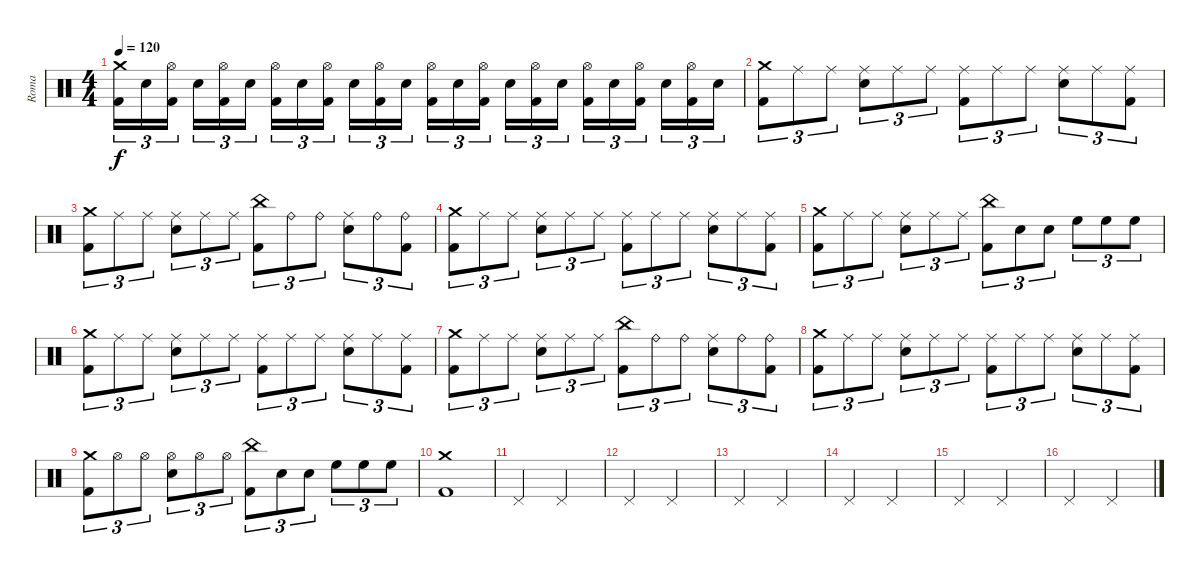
\track ("Roma" "Roma") {instrument percussion}
\staff {score}
\articulation defaults
\ts (4 4)
\tempo 120
\clef neutral
\ks c
("Crash medium (hit)" "Kick (hit) 2").16{tu (3 2) dy f} "Electric Snare (hit)".16{tu (3 2)} ("Hi-Hat (open)" "Kick (hit) 2").16{tu (3 2) beam splitsecondary} "Electric Snare (hit)".16{tu (3 2)} ("Hi-Hat (open)" "Kick (hit) 2").16{tu (3 2)} "Electric Snare (hit)".16{tu (3 2)} ("Hi-Hat (open)" "Kick (hit) 2").16{tu (3 2)} "Electric Snare (hit)".16{tu (3 2)} ("Hi-Hat (open)" "Kick (hit) 2").16{tu (3 2) beam splitsecondary} "Electric Snare (hit)".16{tu (3 2)} ("Hi-Hat (open)" "Kick (hit) 2").16{tu (3 2)} "Electric Snare (hit)".16{tu (3 2)} ("Hi-Hat (open)" "Kick (hit) 2").16{tu (3 2)} "Electric Snare (hit)".16{tu (3 2)} ("Hi-Hat (open)" "Kick (hit) 2").16{tu (3 2) beam splitsecondary} "Electric Snare (hit)".16{tu (3 2)} ("Hi-Hat (open)" "Kick (hit) 2").16{tu (3 2)} "Electric Snare (hit)".16{tu (3 2)} ("Hi-Hat (open)" "Kick (hit) 2").16{tu (3 2)} "Electric Snare (hit)".16{tu (3 2)} ("Hi-Hat (open)" "Kick (hit) 2").16{tu (3 2) beam splitsecondary} "Electric Snare (hit)".16{tu (3 2)} ("Hi-Hat (open)" "Kick (hit) 2").16{tu (3 2)} "Electric Snare (hit)".16{tu (3 2)} |
("Crash medium (hit)" "Kick (hit) 2").8{tu (3 2)} "Ride (middle)".8{tu (3 2)} "Ride (middle)".8{tu (3 2)} ("Ride (middle)" "Electric Snare (hit)").8{tu (3 2)} "Ride (middle)".8{tu (3 2)} "Ride (middle)".8{tu (3 2)} ("Ride (middle)" "Kick (hit) 2").8{tu (3 2)} "Ride (middle)".8{tu (3 2)} "Ride (middle)".8{tu (3 2)} ("Ride (middle)" "Electric Snare (hit)").8{tu (3 2)} "Ride (middle)".8{tu (3 2)} ("Ride (middle)" "Kick (hit) 2").8{tu (3 2)} |
("Crash medium (hit)" "Kick (hit) 2").8{tu (3 2)} "Ride (middle)".8{tu (3 2)} "Ride (middle)".8{tu (3 2)} ("Ride (middle)" "Electric Snare (hit)").8{tu (3 2)} "Ride (middle)".8{tu (3 2)} "Ride (middle)".8{tu (3 2)} ("China (hit)" "Kick (hit) 2").8{tu (3 2)} "Ride (bell)".8{tu (3 2)} "Ride (bell)".8{tu (3 2)} ("Ride (middle)" "Electric Snare (hit)").8{tu (3 2)} "Ride (bell)".8{tu (3 2)} ("Ride (bell)" "Kick (hit) 2").8{tu (3 2)} |
("Crash medium (hit)" "Kick (hit) 2").8{tu (3 2)} "Ride (middle)".8{tu (3 2)} "Ride (middle)".8{tu (3 2)} ("Ride (middle)" "Electric Snare (hit)").8{tu (3 2)} "Ride (middle)".8{tu (3 2)} "Ride (middle)".8{tu (3 2)} ("Ride (middle)" "Kick (hit) 2").8{tu (3 2)} "Ride (middle)".8{tu (3 2)} "Ride (middle)".8{tu (3 2)} ("Ride (middle)" "Electric Snare (hit)").8{tu (3 2)} "Ride (middle)".8{tu (3 2)} ("Ride (middle)" "Kick (hit) 2").8{tu (3 2)} |
("Crash medium (hit)" "Kick (hit) 2").8{tu (3 2)} "Ride (middle)".8{tu (3 2)} "Ride (middle)".8{tu (3 2)} ("Ride (middle)" "Electric Snare (hit)").8{tu (3 2)} "Ride (middle)".8{tu (3 2)} "Ride (middle)".8{tu (3 2)} ("China (hit)" "Kick (hit) 2").8{tu (3 2)} "Electric Snare (hit)".8{tu (3 2)} "Electric Snare (hit)".8{tu (3 2)} "High Floor Tom (hit)".8{tu (3 2)} "High Floor Tom (hit)".8{tu (3 2)} "High Floor Tom (hit)".8{tu (3 2)} |
("Crash medium (hit)" "Kick (hit) 2").8{tu (3 2)} "Ride (middle)".8{tu (3 2)} "Ride (middle)".8{tu (3 2)} ("Ride (middle)" "Electric Snare (hit)").8{tu (3 2)} "Ride (middle)".8{tu (3 2)} "Ride (middle)".8{tu (3 2)} ("Ride (middle)" "Kick (hit) 2").8{tu (3 2)} "Ride (middle)".8{tu (3 2)} "Ride (middle)".8{tu (3 2)} ("Ride (middle)" "Electric Snare (hit)").8{tu (3 2)} "Ride (middle)".8{tu (3 2)} ("Ride (middle)" "Kick (hit) 2").8{tu (3 2)} |
("Crash medium (hit)" "Kick (hit) 2").8{tu (3 2)} "Ride (middle)".8{tu (3 2)} "Ride (middle)".8{tu (3 2)} ("Ride (middle)" "Electric Snare (hit)").8{tu (3 2)} "Ride (middle)".8{tu (3 2)} "Ride (middle)".8{tu (3 2)} ("China (hit)" "Kick (hit) 2").8{tu (3 2)} "Ride (bell)".8{tu (3 2)} "Ride (bell)".8{tu (3 2)} ("Ride (middle)" "Electric Snare (hit)").8{tu (3 2)} "Ride (bell)".8{tu (3 2)} ("Ride (bell)" "Kick (hit) 2").8{tu (3 2)} |
("Crash medium (hit)" "Kick (hit) 2").8{tu (3 2)} "Ride (middle)".8{tu (3 2)} "Ride (middle)".8{tu (3 2)} ("Ride (middle)" "Electric Snare (hit)").8{tu (3 2)} "Ride (middle)".8{tu (3 2)} "Ride (middle)".8{tu (3 2)} ("Ride (middle)" "Kick (hit) 2").8{tu (3 2)} "Ride (middle)".8{tu (3 2)} "Ride (middle)".8{tu (3 2)} ("Ride (middle)" "Electric Snare (hit)").8{tu (3 2)} "Ride (middle)".8{tu (3 2)} ("Ride (middle)" "Kick (hit) 2").8{tu (3 2)} |
("Crash medium (hit)" "Kick (hit) 2").8{tu (3 2)} "Hi-Hat (open)".8{tu (3 2)} "Hi-Hat (open)".8{tu (3 2)} ("Hi-Hat (open)" "Electric Snare (hit)").8{tu (3 2)} "Hi-Hat (open)".8{tu (3 2)} "Hi-Hat (open)".8{tu (3 2)} ("China (hit)" "Kick (hit) 2").8{tu (3 2)} "Electric Snare (hit)".8{tu (3 2)} "Electric Snare (hit)".8{tu (3 2)} "High Floor Tom (hit)".8{tu (3 2)} "High Floor Tom (hit)".8{tu (3 2)} "High Floor Tom (hit)".8{tu (3 2)} |
("Crash medium (hit)" "Kick (hit) 2").1 |
"Pedal Hi-Hat (hit)".2 "Pedal Hi-Hat (hit)".2 |
"Pedal Hi-Hat (hit)".2 "Pedal Hi-Hat (hit)".2 |
"Pedal Hi-Hat (hit)".2 "Pedal Hi-Hat (hit)".2 |
"Pedal Hi-Hat (hit)".2 "Pedal Hi-Hat (hit)".2 |
"Pedal Hi-Hat (hit)".2 "Pedal Hi-Hat (hit)".2 |
"Pedal Hi-Hat (hit)".2 "Pedal Hi-Hat (hit)".2
